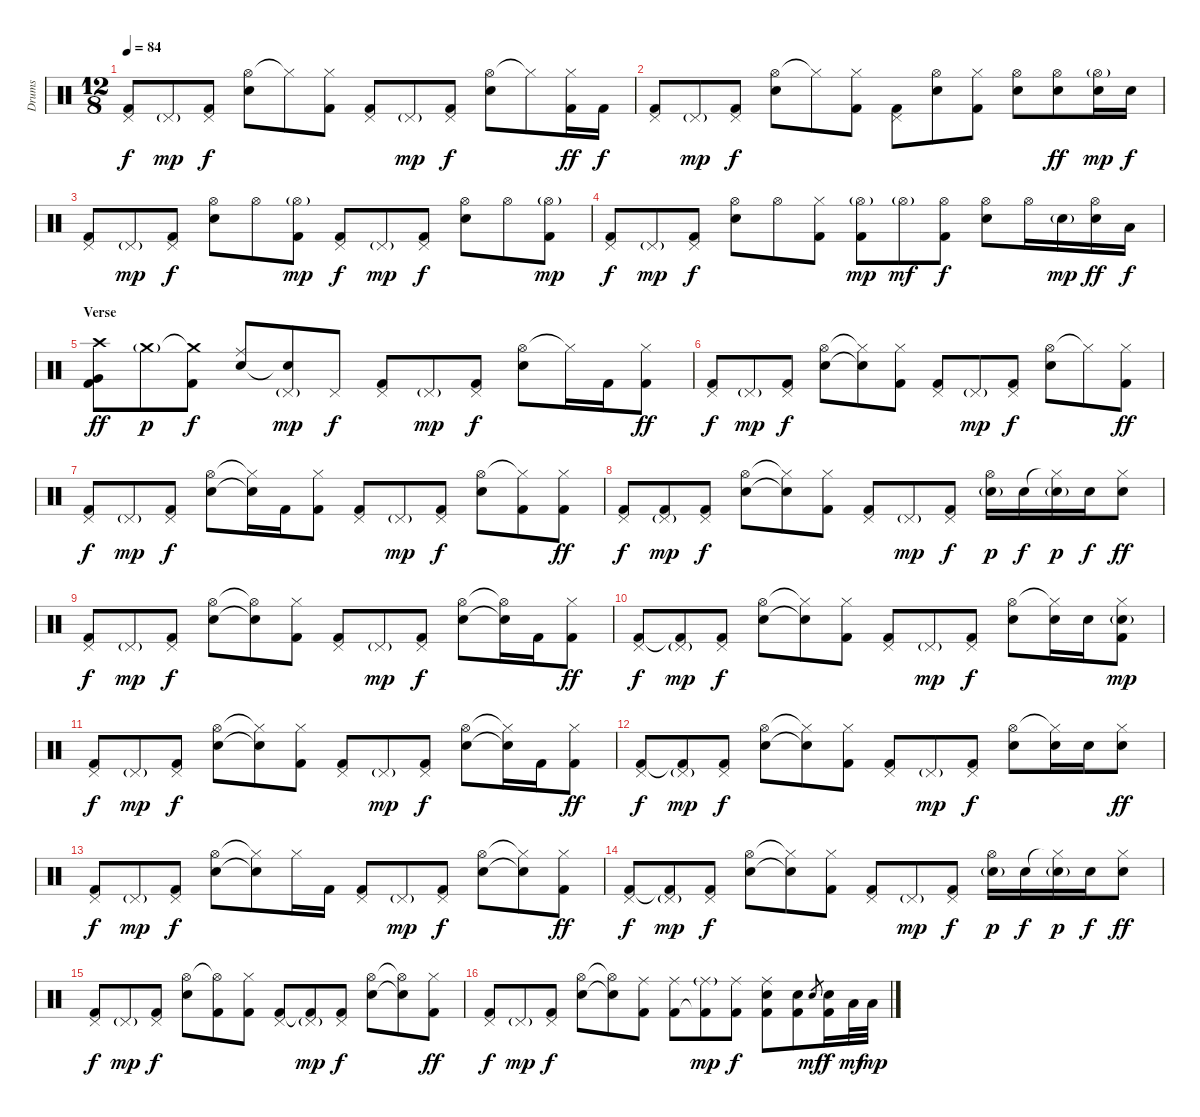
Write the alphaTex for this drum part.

\track ("Drums" "Drums") {instrument percussion}
\staff {score}
\articulation defaults
\ts (12 8)
\tempo 84
\clef neutral
\ks c
("Pedal Hi-Hat (hit)" "Kick (hit) 2").8{dy f} "Pedal Hi-Hat (hit)"{g}.8{dy mp} ("Pedal Hi-Hat (hit)" "Kick (hit) 2").8{dy f} ("Hi-Hat (open)" "Electric Snare (hit)").8 "Hi-Hat (closed)"{t}.8 ("Hi-Hat (closed)" "Kick (hit) 2").8 ("Pedal Hi-Hat (hit)" "Kick (hit) 2").8 "Pedal Hi-Hat (hit)"{g}.8{dy mp} ("Pedal Hi-Hat (hit)" "Kick (hit) 2").8{dy f} ("Hi-Hat (open)" "Electric Snare (hit)").8 "Hi-Hat (closed)"{t}.8 ("Hi-Hat (closed)" "Kick (hit) 2").16{dy ff} "Kick (hit) 2".16{dy f} |
("Pedal Hi-Hat (hit)" "Kick (hit) 2").8 "Pedal Hi-Hat (hit)"{g}.8{dy mp} ("Pedal Hi-Hat (hit)" "Kick (hit) 2").8{dy f} ("Hi-Hat (open)" "Electric Snare (hit)").8 "Hi-Hat (closed)"{t}.8 ("Hi-Hat (closed)" "Kick (hit) 2").8 ("Pedal Hi-Hat (hit)" "Kick (hit) 2").8 ("Hi-Hat (open)" "Electric Snare (hit)").8 ("Hi-Hat (closed)" "Kick (hit) 2").8 ("Hi-Hat (open)" "Electric Snare (hit)").8 ("Hi-Hat (open)" "Electric Snare (hit)").8{dy ff} ("Hi-Hat (open)"{g} "Electric Snare (hit)").16{dy mp} "Electric Snare (hit)".16{dy f} |
("Pedal Hi-Hat (hit)" "Kick (hit) 2").8 "Pedal Hi-Hat (hit)"{g}.8{dy mp} ("Pedal Hi-Hat (hit)" "Kick (hit) 2").8{dy f} ("Hi-Hat (open)" "Electric Snare (hit)").8 "Hi-Hat (open)".8 ("Hi-Hat (open)"{g} "Kick (hit) 2").8{dy mp} ("Pedal Hi-Hat (hit)" "Kick (hit) 2").8{dy f} "Pedal Hi-Hat (hit)"{g}.8{dy mp} ("Pedal Hi-Hat (hit)" "Kick (hit) 2").8{dy f} ("Hi-Hat (open)" "Electric Snare (hit)").8 "Hi-Hat (open)".8 ("Hi-Hat (open)"{g} "Kick (hit) 2").8{dy mp} |
("Pedal Hi-Hat (hit)" "Kick (hit) 2").8{dy f} "Pedal Hi-Hat (hit)"{g}.8{dy mp} ("Pedal Hi-Hat (hit)" "Kick (hit) 2").8{dy f} ("Hi-Hat (open)" "Electric Snare (hit)").8 "Hi-Hat (open)".8 ("Hi-Hat (closed)" "Kick (hit) 2").8 ("Hi-Hat (open)"{g} "Kick (hit) 2").8{dy mp} "Hi-Hat (open)"{g}.8{dy mf} ("Hi-Hat (open)" "Kick (hit) 2").8{dy f} ("Hi-Hat (open)" "Electric Snare (hit)").8 "Hi-Hat (open)".16 "Electric Snare (hit)"{g}.16{dy mp} ("Hi-Hat (open)" "Electric Snare (hit)").16{dy ff} "Low Tom (hit)".16{dy f} |
\section ("" "Verse")
("Crash high (hit)" "Very Low Tom (hit)" "Kick (hit) 2").8{dy ff} "Crash medium (hit)"{g}.8{dy p} ("Crash medium (hit)"{t} "Kick (hit) 2").8{dy f} ("Ride (middle)" "Electric Snare (hit)").8 ("Pedal Hi-Hat (hit)"{g} "Snare (hit)"{t}).8{dy mp} "Pedal Hi-Hat (hit)".8{dy f} ("Pedal Hi-Hat (hit)" "Kick (hit) 2").8 "Pedal Hi-Hat (hit)"{g}.8{dy mp} ("Pedal Hi-Hat (hit)" "Kick (hit) 2").8{dy f} ("Hi-Hat (open)" "Electric Snare (hit)").8 "Hi-Hat (closed)"{t}.16 "Kick (hit) 2".16 ("Hi-Hat (closed)" "Kick (hit) 2").8{dy ff} |
("Pedal Hi-Hat (hit)" "Kick (hit) 2").8{dy f} "Pedal Hi-Hat (hit)"{g}.8{dy mp} ("Pedal Hi-Hat (hit)" "Kick (hit) 2").8{dy f} ("Hi-Hat (open)" "Electric Snare (hit)").8 ("Hi-Hat (closed)"{t} "Snare (hit)"{t}).8 ("Hi-Hat (closed)" "Kick (hit) 2").8 ("Pedal Hi-Hat (hit)" "Kick (hit) 2").8 "Pedal Hi-Hat (hit)"{g}.8{dy mp} ("Pedal Hi-Hat (hit)" "Kick (hit) 2").8{dy f} ("Hi-Hat (open)" "Electric Snare (hit)").8 "Hi-Hat (closed)"{t}.8 ("Hi-Hat (closed)" "Kick (hit) 2").8{dy ff} |
("Pedal Hi-Hat (hit)" "Kick (hit) 2").8{dy f} "Pedal Hi-Hat (hit)"{g}.8{dy mp} ("Pedal Hi-Hat (hit)" "Kick (hit) 2").8{dy f} ("Hi-Hat (open)" "Electric Snare (hit)").8 ("Hi-Hat (closed)"{t} "Snare (hit)"{t}).16 "Kick (hit) 2".16 ("Hi-Hat (closed)" "Kick (hit) 2").8 ("Pedal Hi-Hat (hit)" "Kick (hit) 2").8 "Pedal Hi-Hat (hit)"{g}.8{dy mp} ("Pedal Hi-Hat (hit)" "Kick (hit) 2").8{dy f} ("Hi-Hat (open)" "Electric Snare (hit)").8 ("Hi-Hat (closed)"{t} "Kick (hit) 2").8 ("Hi-Hat (closed)" "Kick (hit) 2").8{dy ff} |
("Pedal Hi-Hat (hit)" "Kick (hit) 2").8{dy f} ("Pedal Hi-Hat (hit)"{g} "Kick (hit) 2").8{dy mp} ("Pedal Hi-Hat (hit)" "Kick (hit) 2").8{dy f} ("Hi-Hat (open)" "Electric Snare (hit)").8 ("Hi-Hat (closed)"{t} "Snare (hit)"{t}).8 ("Hi-Hat (closed)" "Kick (hit) 2").8 ("Pedal Hi-Hat (hit)" "Kick (hit) 2").8 "Pedal Hi-Hat (hit)"{g}.8{dy mp} ("Pedal Hi-Hat (hit)" "Kick (hit) 2").8{dy f} ("Hi-Hat (open)" "Electric Snare (hit)"{g}).16{dy p} "Electric Snare (hit)".16{dy f} ("Hi-Hat (closed)"{t} "Electric Snare (hit)"{g}).16{dy p} "Electric Snare (hit)".16{dy f} ("Hi-Hat (closed)" "Electric Snare (hit)").8{dy ff} |
("Pedal Hi-Hat (hit)" "Kick (hit) 2").8{dy f} "Pedal Hi-Hat (hit)"{g}.8{dy mp} ("Pedal Hi-Hat (hit)" "Kick (hit) 2").8{dy f} ("Hi-Hat (open)" "Electric Snare (hit)").8 ("Hi-Hat (open)"{t} "Snare (hit)"{t}).8 ("Hi-Hat (closed)" "Kick (hit) 2").8 ("Pedal Hi-Hat (hit)" "Kick (hit) 2").8 "Pedal Hi-Hat (hit)"{g}.8{dy mp} ("Pedal Hi-Hat (hit)" "Kick (hit) 2").8{dy f} ("Hi-Hat (open)" "Electric Snare (hit)").8 ("Hi-Hat (open)"{t} "Electric Snare (hit)"{t}).16 "Kick (hit) 2".16 ("Hi-Hat (closed)" "Kick (hit) 2").8{dy ff} |
("Pedal Hi-Hat (hit)" "Kick (hit) 2").8{dy f} ("Pedal Hi-Hat (hit)"{g} "Kick (hit) 2"{t}).8{dy mp} ("Pedal Hi-Hat (hit)" "Kick (hit) 2").8{dy f} ("Hi-Hat (open)" "Electric Snare (hit)").8 ("Hi-Hat (closed)"{t} "Snare (hit)"{t}).8 ("Hi-Hat (closed)" "Kick (hit) 2").8 ("Pedal Hi-Hat (hit)" "Kick (hit) 2").8 "Pedal Hi-Hat (hit)"{g}.8{dy mp} ("Pedal Hi-Hat (hit)" "Kick (hit) 2").8{dy f} ("Hi-Hat (open)" "Electric Snare (hit)").8 ("Hi-Hat (closed)"{t} "Electric Snare (hit)").16 "Electric Snare (hit)".16 ("Hi-Hat (closed)" "Electric Snare (hit)"{g} "Kick (hit) 2").8{dy mp} |
("Pedal Hi-Hat (hit)" "Kick (hit) 2").8{dy f} "Pedal Hi-Hat (hit)"{g}.8{dy mp} ("Pedal Hi-Hat (hit)" "Kick (hit) 2").8{dy f} ("Hi-Hat (open)" "Electric Snare (hit)").8 ("Hi-Hat (closed)"{t} "Snare (hit)"{t}).8 ("Hi-Hat (closed)" "Kick (hit) 2").8 ("Pedal Hi-Hat (hit)" "Kick (hit) 2").8 "Pedal Hi-Hat (hit)"{g}.8{dy mp} ("Pedal Hi-Hat (hit)" "Kick (hit) 2").8{dy f} ("Hi-Hat (open)" "Electric Snare (hit)").8 ("Hi-Hat (closed)"{t} "Electric Snare (hit)"{t}).16 "Kick (hit) 2".16 ("Hi-Hat (closed)" "Kick (hit) 2").8{dy ff} |
("Pedal Hi-Hat (hit)" "Kick (hit) 2").8{dy f} ("Pedal Hi-Hat (hit)"{g} "Kick (hit) 2"{t}).8{dy mp} ("Pedal Hi-Hat (hit)" "Kick (hit) 2").8{dy f} ("Hi-Hat (open)" "Electric Snare (hit)").8 ("Hi-Hat (closed)"{t} "Snare (hit)"{t}).8 ("Hi-Hat (closed)" "Kick (hit) 2").8 ("Pedal Hi-Hat (hit)" "Kick (hit) 2").8 "Pedal Hi-Hat (hit)"{g}.8{dy mp} ("Pedal Hi-Hat (hit)" "Kick (hit) 2").8{dy f} ("Hi-Hat (open)" "Electric Snare (hit)").8 ("Hi-Hat (closed)"{t} "Electric Snare (hit)").16 "Electric Snare (hit)".16 ("Hi-Hat (closed)" "Electric Snare (hit)").8{dy ff} |
("Pedal Hi-Hat (hit)" "Kick (hit) 2").8{dy f} "Pedal Hi-Hat (hit)"{g}.8{dy mp} ("Pedal Hi-Hat (hit)" "Kick (hit) 2").8{dy f} ("Hi-Hat (open)" "Electric Snare (hit)").8 ("Hi-Hat (closed)"{t} "Snare (hit)"{t}).8 "Hi-Hat (closed)".16 "Kick (hit) 2".16 ("Pedal Hi-Hat (hit)" "Kick (hit) 2").8 "Pedal Hi-Hat (hit)"{g}.8{dy mp} ("Pedal Hi-Hat (hit)" "Kick (hit) 2").8{dy f} ("Hi-Hat (open)" "Electric Snare (hit)").8 ("Hi-Hat (closed)"{t} "Electric Snare (hit)"{t}).8 ("Hi-Hat (closed)" "Kick (hit) 2").8{dy ff} |
("Pedal Hi-Hat (hit)" "Kick (hit) 2").8{dy f} ("Pedal Hi-Hat (hit)"{g} "Kick (hit) 2"{t}).8{dy mp} ("Pedal Hi-Hat (hit)" "Kick (hit) 2").8{dy f} ("Hi-Hat (open)" "Electric Snare (hit)").8 ("Hi-Hat (closed)"{t} "Snare (hit)"{t}).8 ("Hi-Hat (closed)" "Kick (hit) 2").8 ("Pedal Hi-Hat (hit)" "Kick (hit) 2").8 "Pedal Hi-Hat (hit)"{g}.8{dy mp} ("Pedal Hi-Hat (hit)" "Kick (hit) 2").8{dy f} ("Hi-Hat (open)" "Electric Snare (hit)"{g}).16{dy p} "Electric Snare (hit)".16{dy f} ("Hi-Hat (closed)"{t} "Electric Snare (hit)"{g}).16{dy p} "Electric Snare (hit)".16{dy f} ("Hi-Hat (closed)" "Electric Snare (hit)").8{dy ff} |
("Pedal Hi-Hat (hit)" "Kick (hit) 2").8{dy f} "Pedal Hi-Hat (hit)"{g}.8{dy mp} ("Pedal Hi-Hat (hit)" "Kick (hit) 2").8{dy f} ("Hi-Hat (open)" "Electric Snare (hit)").8 ("Hi-Hat (open)"{t} "Kick (hit) 2").8 ("Hi-Hat (closed)" "Kick (hit) 2").8 ("Pedal Hi-Hat (hit)" "Kick (hit) 2").8 ("Pedal Hi-Hat (hit)"{g} "Kick (hit) 2"{t}).8{dy mp} ("Pedal Hi-Hat (hit)" "Kick (hit) 2").8{dy f} ("Hi-Hat (open)" "Electric Snare (hit)").8 ("Hi-Hat (open)"{t} "Electric Snare (hit)"{t}).8 ("Hi-Hat (closed)" "Kick (hit) 2").8{dy ff} |
("Pedal Hi-Hat (hit)" "Kick (hit) 2").8{dy f} "Pedal Hi-Hat (hit)"{g}.8{dy mp} ("Pedal Hi-Hat (hit)" "Kick (hit) 2").8{dy f} ("Hi-Hat (open)" "Electric Snare (hit)").8 ("Hi-Hat (open)"{t} "Snare (hit)"{t}).8 ("Ride (middle)" "Kick (hit) 2").8 ("Ride (middle)" "Kick (hit) 2").8 ("Ride (middle)"{g} "Kick (hit) 2"{t}).8{dy mp} ("Ride (middle)" "Kick (hit) 2").8{dy f} ("Ride (middle)" "Electric Snare (hit)" "Kick (hit) 2").8 ("Electric Snare (hit)" "Kick (hit) 2").8 "Electric Snare (hit)".8{gr dy mf} ("Electric Snare (hit)" "Kick (hit) 2").16{dy f} "Low Tom (hit)".32{dy mf} "Low Tom (hit)".32{dy mp}
